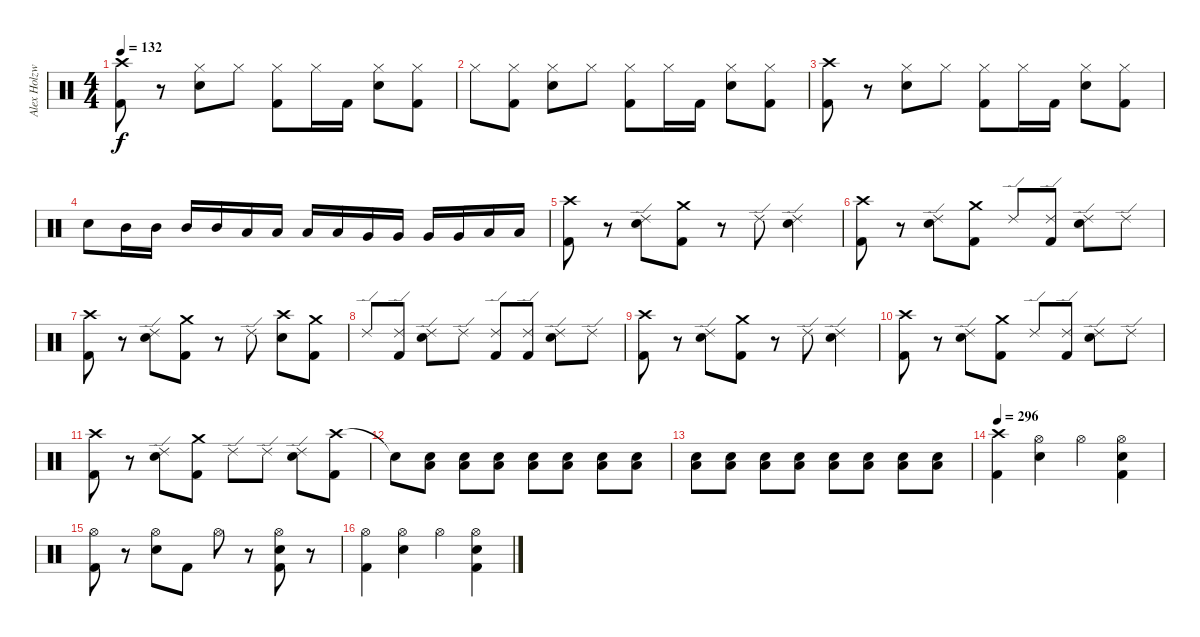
\track ("Alex Holzwarth" "Alex Holzw") {instrument percussion}
\staff {score}
\articulation defaults
\ts (4 4)
\tempo 132
\clef neutral
\ks c
("Crash high (hit)" "Kick (hit) 2").8{dy f} r.8 ("Hi-Hat (closed)" "Snare (hit) 2").8 "Hi-Hat (closed)".8 ("Hi-Hat (closed)" "Kick (hit) 2").8 "Hi-Hat (closed)".16 "Kick (hit) 2".16 ("Hi-Hat (closed)" "Snare (hit) 2").8 ("Hi-Hat (closed)" "Kick (hit) 2").8 |
"Hi-Hat (closed)".8 ("Hi-Hat (closed)" "Kick (hit) 2").8 ("Hi-Hat (closed)" "Snare (hit) 2").8 "Hi-Hat (closed)".8 ("Hi-Hat (closed)" "Kick (hit) 2").8 "Hi-Hat (closed)".16 "Kick (hit) 2".16 ("Hi-Hat (closed)" "Snare (hit) 2").8 ("Hi-Hat (closed)" "Kick (hit) 2").8 |
("Crash high (hit)" "Kick (hit) 2").8 r.8 ("Hi-Hat (closed)" "Snare (hit) 2").8 "Hi-Hat (closed)".8 ("Hi-Hat (closed)" "Kick (hit) 2").8 "Hi-Hat (closed)".16 "Kick (hit) 2".16 ("Hi-Hat (closed)" "Snare (hit) 2").8 ("Hi-Hat (closed)" "Kick (hit) 2").8 |
"Snare (hit) 2".8 "Mid Tom (hit)".16 "Mid Tom (hit)".16 "Mid Tom (hit)".16 "Mid Tom (hit)".16 "Low Tom (hit)".16 "Low Tom (hit)".16 "Low Tom (hit)".16 "Low Tom (hit)".16 "Very Low Tom (hit)".16 "Very Low Tom (hit)".16 "Very Low Tom (hit)".16 "Very Low Tom (hit)".16 "Low Floor Tom (hit)".16 "Low Floor Tom (hit)".16 |
("Crash high (hit)" "Kick (hit) 2").8 r.8 ("Ride (edge) 2" "Snare (hit) 2").8 ("Crash medium (hit)" "Kick (hit) 2").8 r.8 "Ride (edge) 2".8 ("Ride (edge) 2" "Snare (hit) 2").4 |
("Crash high (hit)" "Kick (hit) 2").8 r.8 ("Ride (edge) 2" "Snare (hit) 2").8 ("Crash medium (hit)" "Kick (hit) 2").8 "Ride (edge) 2".8 ("Ride (edge) 2" "Kick (hit) 2").8 ("Ride (edge) 2" "Snare (hit) 2").8 "Ride (edge) 2".8 |
("Crash high (hit)" "Kick (hit) 2").8 r.8 ("Ride (edge) 2" "Snare (hit) 2").8 ("Crash medium (hit)" "Kick (hit) 2").8 r.8 "Ride (edge) 2".8 ("Crash high (hit)" "Snare (hit) 2").8 ("Crash medium (hit)" "Kick (hit) 2").8 |
"Ride (edge) 2".8 ("Ride (edge) 2" "Kick (hit) 2").8 ("Ride (edge) 2" "Snare (hit) 2").8 "Ride (edge) 2".8 ("Ride (edge) 2" "Kick (hit) 2").8 ("Ride (edge) 2" "Kick (hit) 2").8 ("Ride (edge) 2" "Snare (hit) 2").8 "Ride (edge) 2".8 |
("Crash high (hit)" "Kick (hit) 2").8 r.8 ("Ride (edge) 2" "Snare (hit) 2").8 ("Crash medium (hit)" "Kick (hit) 2").8 r.8 "Ride (edge) 2".8 ("Ride (edge) 2" "Snare (hit) 2").4 |
("Crash high (hit)" "Kick (hit) 2").8 r.8 ("Ride (edge) 2" "Snare (hit) 2").8 ("Crash medium (hit)" "Kick (hit) 2").8 "Ride (edge) 2".8 ("Ride (edge) 2" "Kick (hit) 2").8 ("Ride (edge) 2" "Snare (hit) 2").8 "Ride (edge) 2".8 |
("Crash high (hit)" "Kick (hit) 2").8 r.8 ("Ride (edge) 2" "Snare (hit) 2").8 ("Crash medium (hit)" "Kick (hit) 2").8 "Ride (edge) 2".8 "Ride (edge) 2".8 ("Ride (edge) 2" "Snare (hit) 2").8 ("Crash high (hit)" "Kick (hit) 2").8 |
"Snare (hit)"{t}.8 ("Low Floor Tom (hit)" "Snare (hit) 2").8 ("Low Floor Tom (hit)" "Snare (hit) 2").8 ("Low Floor Tom (hit)" "Snare (hit) 2").8 ("Low Floor Tom (hit)" "Snare (hit) 2").8 ("Low Floor Tom (hit)" "Snare (hit) 2").8 ("Low Floor Tom (hit)" "Snare (hit) 2").8 ("Low Floor Tom (hit)" "Snare (hit) 2").8 |
("Low Floor Tom (hit)" "Snare (hit) 2").8 ("Low Floor Tom (hit)" "Snare (hit) 2").8 ("Low Floor Tom (hit)" "Snare (hit) 2").8 ("Low Floor Tom (hit)" "Snare (hit) 2").8 ("Low Floor Tom (hit)" "Snare (hit) 2").8 ("Low Floor Tom (hit)" "Snare (hit) 2").8 ("Low Floor Tom (hit)" "Snare (hit) 2").8 ("Low Floor Tom (hit)" "Snare (hit) 2").8 |
\tempo 296
("Crash high (hit)" "Kick (hit) 2").4 ("Hi-Hat (open)" "Snare (hit) 2").4 "Hi-Hat (open)".4 ("Hi-Hat (open)" "Snare (hit) 2" "Kick (hit) 2").4 |
("Hi-Hat (open)" "Kick (hit) 2").8 r.8 ("Hi-Hat (open)" "Snare (hit) 2").8 "Kick (hit) 2".8 "Hi-Hat (open)".8 r.8 ("Hi-Hat (open)" "Snare (hit) 2" "Kick (hit) 2").8 r.8 |
("Hi-Hat (open)" "Kick (hit) 2").4 ("Hi-Hat (open)" "Snare (hit) 2").4 "Hi-Hat (open)".4 ("Hi-Hat (open)" "Snare (hit) 2" "Kick (hit) 2").4
